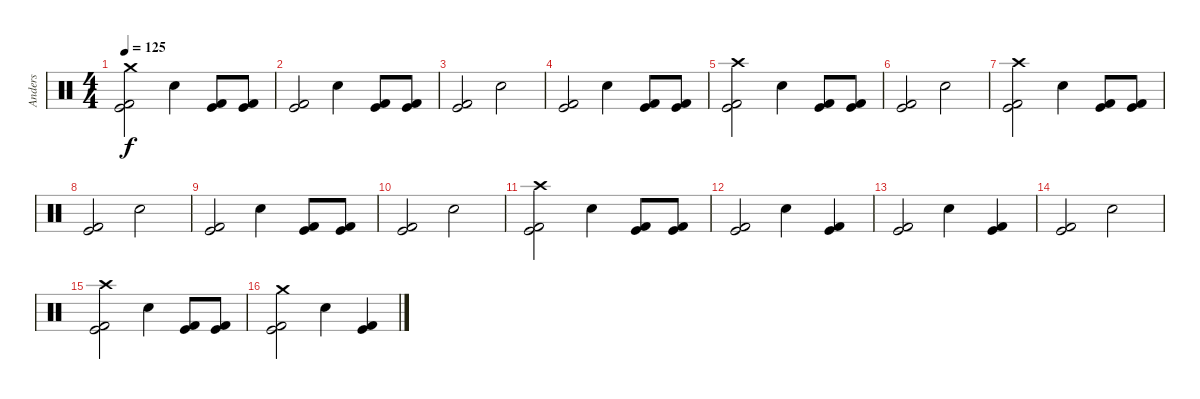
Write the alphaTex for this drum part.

\track ("Anders" "Anders") {instrument percussion}
\staff {score}
\articulation defaults
\ts (4 4)
\tempo 125
\clef neutral
\ks c
("Crash medium (hit)" "Kick (hit) 2" "Kick (hit)").2{dy f} "Electric Snare (hit)".4 ("Kick (hit) 2" "Kick (hit)").8 ("Kick (hit) 2" "Kick (hit)").8 |
("Kick (hit) 2" "Kick (hit)").2 "Electric Snare (hit)".4 ("Kick (hit) 2" "Kick (hit)").8 ("Kick (hit) 2" "Kick (hit)").8 |
("Kick (hit) 2" "Kick (hit)").2 "Electric Snare (hit)".2 |
("Kick (hit) 2" "Kick (hit)").2 "Electric Snare (hit)".4 ("Kick (hit) 2" "Kick (hit)").8 ("Kick (hit) 2" "Kick (hit)").8 |
("Crash high (hit)" "Kick (hit) 2" "Kick (hit)").2 "Electric Snare (hit)".4 ("Kick (hit) 2" "Kick (hit)").8 ("Kick (hit) 2" "Kick (hit)").8 |
("Kick (hit) 2" "Kick (hit)").2 "Electric Snare (hit)".2 |
("Crash high (hit)" "Kick (hit) 2" "Kick (hit)").2 "Electric Snare (hit)".4 ("Kick (hit) 2" "Kick (hit)").8 ("Kick (hit) 2" "Kick (hit)").8 |
("Kick (hit) 2" "Kick (hit)").2 "Electric Snare (hit)".2 |
("Kick (hit) 2" "Kick (hit)").2 "Electric Snare (hit)".4 ("Kick (hit) 2" "Kick (hit)").8 ("Kick (hit) 2" "Kick (hit)").8 |
("Kick (hit) 2" "Kick (hit)").2 "Electric Snare (hit)".2 |
("Crash high (hit)" "Kick (hit) 2" "Kick (hit)").2 "Electric Snare (hit)".4 ("Kick (hit) 2" "Kick (hit)").8 ("Kick (hit) 2" "Kick (hit)").8 |
("Kick (hit) 2" "Kick (hit)").2 "Electric Snare (hit)".4 ("Kick (hit) 2" "Kick (hit)").4 |
("Kick (hit) 2" "Kick (hit)").2 "Electric Snare (hit)".4 ("Kick (hit) 2" "Kick (hit)").4 |
("Kick (hit) 2" "Kick (hit)").2 "Electric Snare (hit)".2 |
("Crash high (hit)" "Kick (hit) 2" "Kick (hit)").2 "Electric Snare (hit)".4 ("Kick (hit) 2" "Kick (hit)").8 ("Kick (hit) 2" "Kick (hit)").8 |
("Crash medium (hit)" "Kick (hit)" "Kick (hit) 2").2 "Electric Snare (hit)".4 ("Kick (hit) 2" "Kick (hit)").4
